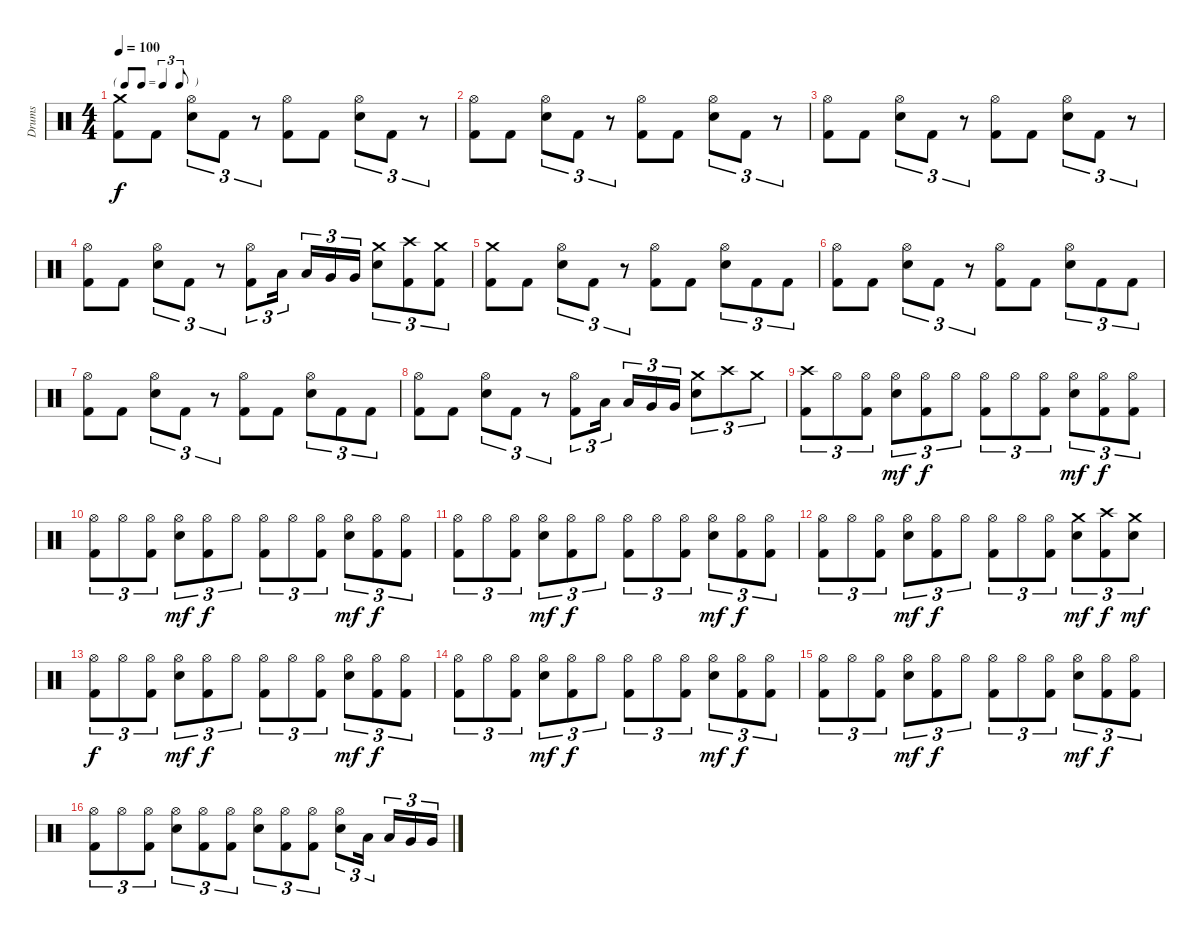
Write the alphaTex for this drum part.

\track ("Drums" "Drums") {instrument percussion}
\staff {score}
\articulation defaults
\ts (4 4)
\tf triplet8th
\tempo 100
\clef neutral
\ks c
("Crash medium (hit)" "Kick (hit) 2").8{dy f} "Kick (hit) 2".8 ("Hi-Hat (open)" "Snare (hit) 2").8{tu (3 2)} "Kick (hit) 2".8{tu (3 2)} r.8{tu (3 2)} ("Hi-Hat (open)" "Kick (hit) 2").8 "Kick (hit) 2".8 ("Hi-Hat (open)" "Snare (hit) 2").8{tu (3 2)} "Kick (hit) 2".8{tu (3 2)} r.8{tu (3 2)} |
("Hi-Hat (open)" "Kick (hit) 2").8 "Kick (hit) 2".8 ("Hi-Hat (open)" "Snare (hit) 2").8{tu (3 2)} "Kick (hit) 2".8{tu (3 2)} r.8{tu (3 2)} ("Hi-Hat (open)" "Kick (hit) 2").8 "Kick (hit) 2".8 ("Hi-Hat (open)" "Snare (hit) 2").8{tu (3 2)} "Kick (hit) 2".8{tu (3 2)} r.8{tu (3 2)} |
("Hi-Hat (open)" "Kick (hit) 2").8 "Kick (hit) 2".8 ("Hi-Hat (open)" "Snare (hit) 2").8{tu (3 2)} "Kick (hit) 2".8{tu (3 2)} r.8{tu (3 2)} ("Hi-Hat (open)" "Kick (hit) 2").8 "Kick (hit) 2".8 ("Hi-Hat (open)" "Snare (hit) 2").8{tu (3 2)} "Kick (hit) 2".8{tu (3 2)} r.8{tu (3 2)} |
("Hi-Hat (open)" "Kick (hit) 2").8 "Kick (hit) 2".8 ("Hi-Hat (open)" "Snare (hit) 2").8{tu (3 2)} "Kick (hit) 2".8{tu (3 2)} r.8{tu (3 2)} ("Hi-Hat (open)" "Kick (hit) 2").8{tu (3 2)} "Low Tom (hit)".16{tu (3 2) beam splitsecondary} "Low Tom (hit)".16{tu (3 2)} "Very Low Tom (hit)".16{tu (3 2)} "Very Low Tom (hit)".16{tu (3 2)} ("Crash medium (hit)" "Snare (hit) 2").8{tu (3 2)} ("Crash high (hit)" "Kick (hit) 2").8{tu (3 2)} ("Crash medium (hit)" "Kick (hit) 2").8{tu (3 2)} |
("Crash medium (hit)" "Kick (hit) 2").8 "Kick (hit) 2".8 ("Hi-Hat (open)" "Snare (hit) 2").8{tu (3 2)} "Kick (hit) 2".8{tu (3 2)} r.8{tu (3 2)} ("Hi-Hat (open)" "Kick (hit) 2").8 "Kick (hit) 2".8 ("Hi-Hat (open)" "Snare (hit) 2").8{tu (3 2)} "Kick (hit) 2".8{tu (3 2)} "Kick (hit) 2".8{tu (3 2)} |
("Hi-Hat (open)" "Kick (hit) 2").8 "Kick (hit) 2".8 ("Hi-Hat (open)" "Snare (hit) 2").8{tu (3 2)} "Kick (hit) 2".8{tu (3 2)} r.8{tu (3 2)} ("Hi-Hat (open)" "Kick (hit) 2").8 "Kick (hit) 2".8 ("Hi-Hat (open)" "Snare (hit) 2").8{tu (3 2)} "Kick (hit) 2".8{tu (3 2)} "Kick (hit) 2".8{tu (3 2)} |
("Hi-Hat (open)" "Kick (hit) 2").8 "Kick (hit) 2".8 ("Hi-Hat (open)" "Snare (hit) 2").8{tu (3 2)} "Kick (hit) 2".8{tu (3 2)} r.8{tu (3 2)} ("Hi-Hat (open)" "Kick (hit) 2").8 "Kick (hit) 2".8 ("Hi-Hat (open)" "Snare (hit) 2").8{tu (3 2)} "Kick (hit) 2".8{tu (3 2)} "Kick (hit) 2".8{tu (3 2)} |
("Hi-Hat (open)" "Kick (hit) 2").8 "Kick (hit) 2".8 ("Hi-Hat (open)" "Snare (hit) 2").8{tu (3 2)} "Kick (hit) 2".8{tu (3 2)} r.8{tu (3 2)} ("Hi-Hat (open)" "Kick (hit) 2").8{tu (3 2)} "Low Tom (hit)".16{tu (3 2) beam splitsecondary} "Low Tom (hit)".16{tu (3 2)} "Very Low Tom (hit)".16{tu (3 2)} "Very Low Tom (hit)".16{tu (3 2)} ("Crash medium (hit)" "Snare (hit) 2").8{tu (3 2)} "Crash high (hit)".8{tu (3 2)} "Crash medium (hit)".8{tu (3 2)} |
("Crash high (hit)" "Kick (hit) 2").8{tu (3 2)} "Hi-Hat (open)".8{tu (3 2)} ("Hi-Hat (open)" "Kick (hit) 2").8{tu (3 2)} ("Hi-Hat (open)" "Snare (hit) 2").8{tu (3 2) dy mf} ("Hi-Hat (open)" "Kick (hit) 2").8{tu (3 2) dy f} "Hi-Hat (open)".8{tu (3 2)} ("Hi-Hat (open)" "Kick (hit) 2").8{tu (3 2)} "Hi-Hat (open)".8{tu (3 2)} ("Hi-Hat (open)" "Kick (hit) 2").8{tu (3 2)} ("Hi-Hat (open)" "Snare (hit) 2").8{tu (3 2) dy mf} ("Hi-Hat (open)" "Kick (hit) 2").8{tu (3 2) dy f} ("Hi-Hat (open)" "Kick (hit) 2").8{tu (3 2)} |
("Hi-Hat (open)" "Kick (hit) 2").8{tu (3 2)} "Hi-Hat (open)".8{tu (3 2)} ("Hi-Hat (open)" "Kick (hit) 2").8{tu (3 2)} ("Hi-Hat (open)" "Snare (hit) 2").8{tu (3 2) dy mf} ("Hi-Hat (open)" "Kick (hit) 2").8{tu (3 2) dy f} "Hi-Hat (open)".8{tu (3 2)} ("Hi-Hat (open)" "Kick (hit) 2").8{tu (3 2)} "Hi-Hat (open)".8{tu (3 2)} ("Hi-Hat (open)" "Kick (hit) 2").8{tu (3 2)} ("Hi-Hat (open)" "Snare (hit) 2").8{tu (3 2) dy mf} ("Hi-Hat (open)" "Kick (hit) 2").8{tu (3 2) dy f} ("Hi-Hat (open)" "Kick (hit) 2").8{tu (3 2)} |
("Hi-Hat (open)" "Kick (hit) 2").8{tu (3 2)} "Hi-Hat (open)".8{tu (3 2)} ("Hi-Hat (open)" "Kick (hit) 2").8{tu (3 2)} ("Hi-Hat (open)" "Snare (hit) 2").8{tu (3 2) dy mf} ("Hi-Hat (open)" "Kick (hit) 2").8{tu (3 2) dy f} "Hi-Hat (open)".8{tu (3 2)} ("Hi-Hat (open)" "Kick (hit) 2").8{tu (3 2)} "Hi-Hat (open)".8{tu (3 2)} ("Hi-Hat (open)" "Kick (hit) 2").8{tu (3 2)} ("Hi-Hat (open)" "Snare (hit) 2").8{tu (3 2) dy mf} ("Hi-Hat (open)" "Kick (hit) 2").8{tu (3 2) dy f} ("Hi-Hat (open)" "Kick (hit) 2").8{tu (3 2)} |
("Hi-Hat (open)" "Kick (hit) 2").8{tu (3 2)} "Hi-Hat (open)".8{tu (3 2)} ("Hi-Hat (open)" "Kick (hit) 2").8{tu (3 2)} ("Hi-Hat (open)" "Snare (hit) 2").8{tu (3 2) dy mf} ("Hi-Hat (open)" "Kick (hit) 2").8{tu (3 2) dy f} "Hi-Hat (open)".8{tu (3 2)} ("Hi-Hat (open)" "Kick (hit) 2").8{tu (3 2)} "Hi-Hat (open)".8{tu (3 2)} ("Hi-Hat (open)" "Kick (hit) 2").8{tu (3 2)} ("Crash medium (hit)" "Snare (hit) 2").8{tu (3 2) dy mf} ("Crash high (hit)" "Kick (hit) 2").8{tu (3 2) dy f} ("Crash medium (hit)" "Snare (hit) 2").8{tu (3 2) dy mf} |
("Hi-Hat (open)" "Kick (hit) 2").8{tu (3 2) dy f} "Hi-Hat (open)".8{tu (3 2)} ("Hi-Hat (open)" "Kick (hit) 2").8{tu (3 2)} ("Hi-Hat (open)" "Snare (hit) 2").8{tu (3 2) dy mf} ("Hi-Hat (open)" "Kick (hit) 2").8{tu (3 2) dy f} "Hi-Hat (open)".8{tu (3 2)} ("Hi-Hat (open)" "Kick (hit) 2").8{tu (3 2)} "Hi-Hat (open)".8{tu (3 2)} ("Hi-Hat (open)" "Kick (hit) 2").8{tu (3 2)} ("Hi-Hat (open)" "Snare (hit) 2").8{tu (3 2) dy mf} ("Hi-Hat (open)" "Kick (hit) 2").8{tu (3 2) dy f} ("Hi-Hat (open)" "Kick (hit) 2").8{tu (3 2)} |
("Hi-Hat (open)" "Kick (hit) 2").8{tu (3 2)} "Hi-Hat (open)".8{tu (3 2)} ("Hi-Hat (open)" "Kick (hit) 2").8{tu (3 2)} ("Hi-Hat (open)" "Snare (hit) 2").8{tu (3 2) dy mf} ("Hi-Hat (open)" "Kick (hit) 2").8{tu (3 2) dy f} "Hi-Hat (open)".8{tu (3 2)} ("Hi-Hat (open)" "Kick (hit) 2").8{tu (3 2)} "Hi-Hat (open)".8{tu (3 2)} ("Hi-Hat (open)" "Kick (hit) 2").8{tu (3 2)} ("Hi-Hat (open)" "Snare (hit) 2").8{tu (3 2) dy mf} ("Hi-Hat (open)" "Kick (hit) 2").8{tu (3 2) dy f} ("Hi-Hat (open)" "Kick (hit) 2").8{tu (3 2)} |
("Hi-Hat (open)" "Kick (hit) 2").8{tu (3 2)} "Hi-Hat (open)".8{tu (3 2)} ("Hi-Hat (open)" "Kick (hit) 2").8{tu (3 2)} ("Hi-Hat (open)" "Snare (hit) 2").8{tu (3 2) dy mf} ("Hi-Hat (open)" "Kick (hit) 2").8{tu (3 2) dy f} "Hi-Hat (open)".8{tu (3 2)} ("Hi-Hat (open)" "Kick (hit) 2").8{tu (3 2)} "Hi-Hat (open)".8{tu (3 2)} ("Hi-Hat (open)" "Kick (hit) 2").8{tu (3 2)} ("Hi-Hat (open)" "Snare (hit) 2").8{tu (3 2) dy mf} ("Hi-Hat (open)" "Kick (hit) 2").8{tu (3 2) dy f} ("Hi-Hat (open)" "Kick (hit) 2").8{tu (3 2)} |
("Hi-Hat (open)" "Kick (hit) 2").8{tu (3 2)} "Hi-Hat (open)".8{tu (3 2)} ("Hi-Hat (open)" "Kick (hit) 2").8{tu (3 2)} ("Hi-Hat (open)" "Snare (hit) 2").8{tu (3 2)} ("Hi-Hat (open)" "Kick (hit) 2").8{tu (3 2)} ("Hi-Hat (open)" "Kick (hit) 2").8{tu (3 2)} ("Hi-Hat (open)" "Snare (hit) 2").8{tu (3 2)} ("Hi-Hat (open)" "Kick (hit) 2").8{tu (3 2)} ("Hi-Hat (open)" "Kick (hit) 2").8{tu (3 2)} ("Hi-Hat (open)" "Snare (hit) 2").8{tu (3 2)} "Low Tom (hit)".16{tu (3 2) beam splitsecondary} "Low Tom (hit)".16{tu (3 2)} "Very Low Tom (hit)".16{tu (3 2)} "Very Low Tom (hit)".16{tu (3 2)}
